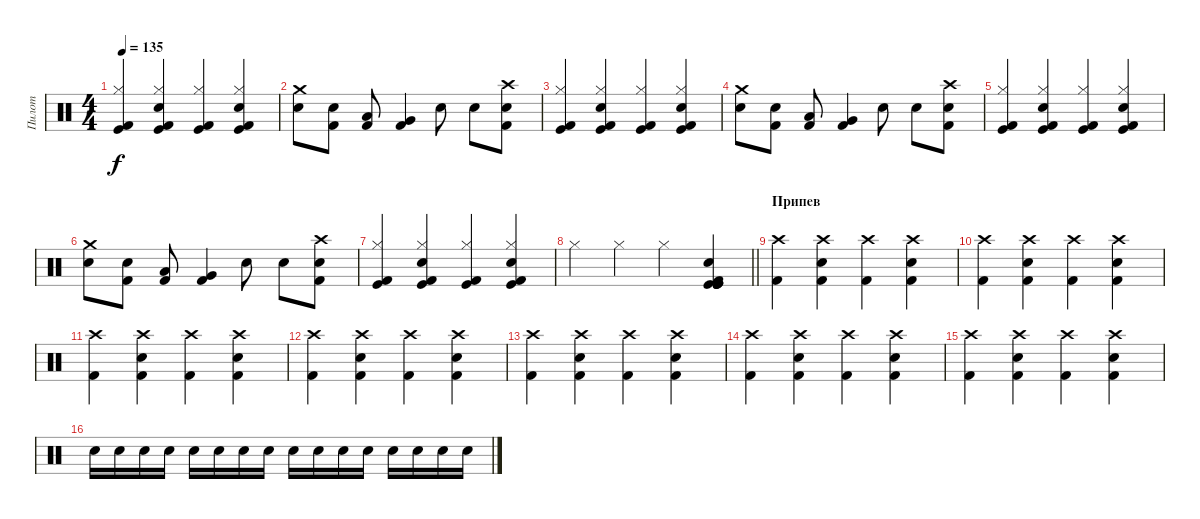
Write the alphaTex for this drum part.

\track ("Пилот" "Пилот") {instrument percussion}
\staff {score}
\articulation defaults
\ts (4 4)
\tempo 135
\clef neutral
\ks c
("Kick (hit) 2" "Hi-Hat (closed)" "Kick (hit)").4{dy f} ("Kick (hit) 2" "Snare (hit) 2" "Hi-Hat (closed)" "Kick (hit)").4 ("Kick (hit) 2" "Hi-Hat (closed)" "Kick (hit)").4 ("Kick (hit) 2" "Snare (hit) 2" "Hi-Hat (closed)" "Kick (hit)").4 |
("Crash medium (hit)" "Snare (hit) 2").8 ("Kick (hit) 2" "Snare (hit) 2").8 ("Kick (hit) 2" "Low Tom (hit)").8 ("Kick (hit) 2" "Very Low Tom (hit)").4 "Snare (hit) 2".8 "Snare (hit) 2".8 ("Kick (hit) 2" "Crash high (hit)" "Snare (hit) 2").8 |
("Kick (hit) 2" "Hi-Hat (closed)" "Kick (hit)").4 ("Kick (hit) 2" "Snare (hit) 2" "Hi-Hat (closed)" "Kick (hit)").4 ("Kick (hit) 2" "Hi-Hat (closed)" "Kick (hit)").4 ("Kick (hit) 2" "Snare (hit) 2" "Hi-Hat (closed)" "Kick (hit)").4 |
("Crash medium (hit)" "Snare (hit) 2").8 ("Kick (hit) 2" "Snare (hit) 2").8 ("Kick (hit) 2" "Low Tom (hit)").8 ("Kick (hit) 2" "Very Low Tom (hit)").4 "Snare (hit) 2".8 "Snare (hit) 2".8 ("Kick (hit) 2" "Crash high (hit)" "Snare (hit) 2").8 |
("Kick (hit) 2" "Hi-Hat (closed)" "Kick (hit)").4 ("Kick (hit) 2" "Snare (hit) 2" "Hi-Hat (closed)" "Kick (hit)").4 ("Kick (hit) 2" "Hi-Hat (closed)" "Kick (hit)").4 ("Kick (hit) 2" "Snare (hit) 2" "Hi-Hat (closed)" "Kick (hit)").4 |
("Crash medium (hit)" "Snare (hit) 2").8 ("Kick (hit) 2" "Snare (hit) 2").8 ("Kick (hit) 2" "Low Tom (hit)").8 ("Kick (hit) 2" "Very Low Tom (hit)").4 "Snare (hit) 2".8 "Snare (hit) 2".8 ("Kick (hit) 2" "Crash high (hit)" "Snare (hit) 2").8 |
("Kick (hit) 2" "Hi-Hat (closed)" "Kick (hit)").4 ("Kick (hit) 2" "Snare (hit) 2" "Hi-Hat (closed)" "Kick (hit)").4 ("Kick (hit) 2" "Hi-Hat (closed)" "Kick (hit)").4 ("Kick (hit) 2" "Snare (hit) 2" "Hi-Hat (closed)" "Kick (hit)").4 |
\barLineRight lightlight "Hi-Hat (closed)".4 "Hi-Hat (closed)".4 "Hi-Hat (closed)".4
("Kick (hit) 2" "Snare (hit) 2" "Kick (hit)" "Kick (hit)" "Kick (hit)" "Kick (hit)").4 |
\section ("" "Припев")
("Crash high (hit)" "Kick (hit) 2").4 ("Crash high (hit)" "Kick (hit) 2" "Snare (hit) 2").4 ("Crash high (hit)" "Kick (hit) 2").4 ("Crash high (hit)" "Kick (hit) 2" "Snare (hit) 2").4 |
("Crash high (hit)" "Kick (hit) 2").4 ("Crash high (hit)" "Kick (hit) 2" "Snare (hit) 2").4 ("Crash high (hit)" "Kick (hit) 2").4 ("Crash high (hit)" "Kick (hit) 2" "Snare (hit) 2").4 |
("Crash high (hit)" "Kick (hit) 2").4 ("Crash high (hit)" "Kick (hit) 2" "Snare (hit) 2").4 ("Crash high (hit)" "Kick (hit) 2").4 ("Crash high (hit)" "Kick (hit) 2" "Snare (hit) 2").4 |
("Crash high (hit)" "Kick (hit) 2").4 ("Crash high (hit)" "Kick (hit) 2" "Snare (hit) 2").4 ("Crash high (hit)" "Kick (hit) 2").4 ("Crash high (hit)" "Kick (hit) 2" "Snare (hit) 2").4 |
("Crash high (hit)" "Kick (hit) 2").4 ("Crash high (hit)" "Kick (hit) 2" "Snare (hit) 2").4 ("Crash high (hit)" "Kick (hit) 2").4 ("Crash high (hit)" "Kick (hit) 2" "Snare (hit) 2").4 |
("Crash high (hit)" "Kick (hit) 2").4 ("Crash high (hit)" "Kick (hit) 2" "Snare (hit) 2").4 ("Crash high (hit)" "Kick (hit) 2").4 ("Crash high (hit)" "Kick (hit) 2" "Snare (hit) 2").4 |
("Crash high (hit)" "Kick (hit) 2").4 ("Crash high (hit)" "Kick (hit) 2" "Snare (hit) 2").4 ("Crash high (hit)" "Kick (hit) 2").4 ("Crash high (hit)" "Kick (hit) 2" "Snare (hit) 2").4 |
"Snare (hit) 2".16 "Snare (hit) 2".16 "Snare (hit) 2".16 "Snare (hit) 2".16 "Snare (hit) 2".16 "Snare (hit) 2".16 "Snare (hit) 2".16 "Snare (hit) 2".16 "Snare (hit) 2".16 "Snare (hit) 2".16 "Snare (hit) 2".16 "Snare (hit) 2".16 "Snare (hit) 2".16 "Snare (hit) 2".16 "Snare (hit) 2".16 "Snare (hit) 2".16
